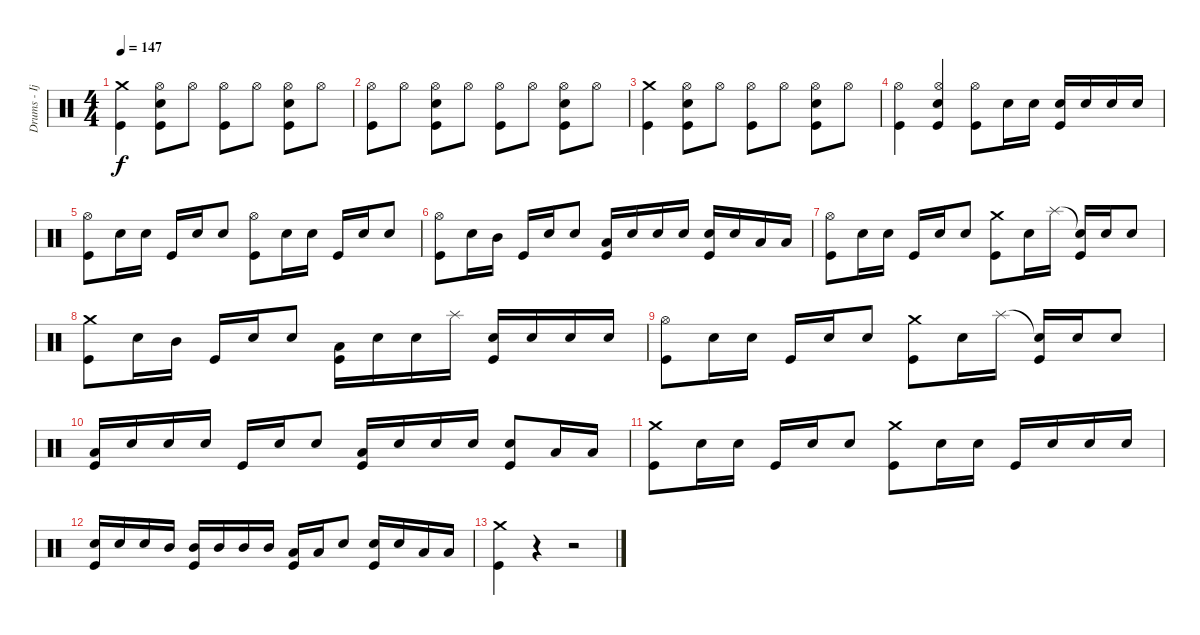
\track ("Drums - Ijichi" "Drums - Ij") {instrument percussion}
\staff {score}
\articulation defaults
\ts (4 4)
\tempo 147
\clef neutral
\ks c
("Crash medium (hit)" "Kick (hit)").4{dy f} ("Hi-Hat (open)" "Electric Snare (hit)" "Kick (hit)").8 "Hi-Hat (open)".8 ("Hi-Hat (open)" "Kick (hit)").8 "Hi-Hat (open)".8 ("Hi-Hat (open)" "Electric Snare (hit)" "Kick (hit)").8 "Hi-Hat (open)".8 |
("Hi-Hat (open)" "Kick (hit)").8 "Hi-Hat (open)".8 ("Hi-Hat (open)" "Electric Snare (hit)" "Kick (hit)").8 "Hi-Hat (open)".8 ("Hi-Hat (open)" "Kick (hit)").8 "Hi-Hat (open)".8 ("Hi-Hat (open)" "Electric Snare (hit)" "Kick (hit)").8 "Hi-Hat (open)".8 |
("Crash medium (hit)" "Kick (hit)").4 ("Hi-Hat (open)" "Electric Snare (hit)" "Kick (hit)").8 "Hi-Hat (open)".8 ("Hi-Hat (open)" "Kick (hit)").8 "Hi-Hat (open)".8 ("Hi-Hat (open)" "Electric Snare (hit)" "Kick (hit)").8 "Hi-Hat (open)".8 |
("Hi-Hat (open)" "Kick (hit)").4 ("Hi-Hat (open)" "Electric Snare (hit)" "Kick (hit)").4 ("Hi-Hat (open)" "Kick (hit)").8 "Electric Snare (hit)".16 "Electric Snare (hit)".16 ("Electric Snare (hit)" "Kick (hit)").16 "Electric Snare (hit)".16 "Electric Snare (hit)".16 "Electric Snare (hit)".16 |
("Hi-Hat (open)" "Kick (hit)").8 "Electric Snare (hit)".16 "Electric Snare (hit)".16 "Kick (hit)".16 "Electric Snare (hit)".16 "Electric Snare (hit)".8 ("Hi-Hat (open)" "Kick (hit)").8 "Electric Snare (hit)".16 "Electric Snare (hit)".16 "Kick (hit)".16 "Electric Snare (hit)".16 "Electric Snare (hit)".8 |
("Hi-Hat (open)" "Kick (hit)").8 "Electric Snare (hit)".16 "Mid Tom (hit)".16 "Kick (hit)".16 "Electric Snare (hit)".16 "Electric Snare (hit)".8 ("Low Tom (hit)" "Kick (hit)").16 "Electric Snare (hit)".16 "Electric Snare (hit)".16 "Electric Snare (hit)".16 ("Electric Snare (hit)" "Kick (hit)").16 "Electric Snare (hit)".16 "Low Tom (hit)".16 "Low Tom (hit)".16 |
("Hi-Hat (open)" "Kick (hit)").8 "Electric Snare (hit)".16 "Electric Snare (hit)".16 "Kick (hit)".16 "Electric Snare (hit)".16 "Electric Snare (hit)".8 ("Crash medium (hit)" "Kick (hit)").8 "Electric Snare (hit)".16 "Splash (hit)".16 ("Snare (hit)"{t} "Kick (hit)").16 "Electric Snare (hit)".16 "Electric Snare (hit)".8 |
("Crash medium (hit)" "Kick (hit)").8 "Electric Snare (hit)".16 "Mid Tom (hit)".16 "Kick (hit)".16 "Electric Snare (hit)".16 "Electric Snare (hit)".8 ("Low Tom (hit)" "Kick (hit)").16 "Electric Snare (hit)".16 "Electric Snare (hit)".16 "Splash (hit)".16 ("Electric Snare (hit)" "Kick (hit)").16 "Electric Snare (hit)".16 "Electric Snare (hit)".16 "Electric Snare (hit)".16 |
("Hi-Hat (open)" "Kick (hit)").8 "Electric Snare (hit)".16 "Electric Snare (hit)".16 "Kick (hit)".16 "Electric Snare (hit)".16 "Electric Snare (hit)".8 ("Crash medium (hit)" "Kick (hit)").8 "Electric Snare (hit)".16 "Splash (hit)".16 ("Snare (hit)"{t} "Kick (hit)").16 "Electric Snare (hit)".16 "Electric Snare (hit)".8 |
("Low Tom (hit)" "Kick (hit)").16 "Electric Snare (hit)".16 "Electric Snare (hit)".16 "Electric Snare (hit)".16 "Kick (hit)".16 "Electric Snare (hit)".16 "Electric Snare (hit)".8 ("Low Tom (hit)" "Kick (hit)").16 "Electric Snare (hit)".16 "Electric Snare (hit)".16 "Electric Snare (hit)".16 ("Electric Snare (hit)" "Kick (hit)").8 "Low Tom (hit)".16 "Low Tom (hit)".16 |
("Crash medium (hit)" "Kick (hit)").8 "Electric Snare (hit)".16 "Electric Snare (hit)".16 "Kick (hit)".16 "Electric Snare (hit)".16 "Electric Snare (hit)".8 ("Crash medium (hit)" "Kick (hit)").8 "Electric Snare (hit)".16 "Electric Snare (hit)".16 "Kick (hit)".16 "Electric Snare (hit)".16 "Electric Snare (hit)".16 "Electric Snare (hit)".16 |
("Electric Snare (hit)" "Kick (hit)").16 "Electric Snare (hit)".16 "Electric Snare (hit)".16 "Mid Tom (hit)".16 ("Mid Tom (hit)" "Kick (hit)").16 "Mid Tom (hit)".16 "Mid Tom (hit)".16 "Mid Tom (hit)".16 ("Low Tom (hit)" "Kick (hit)").16 "Low Tom (hit)".16 "Electric Snare (hit)".8 ("Electric Snare (hit)" "Kick (hit)").16 "Electric Snare (hit)".16 "Low Tom (hit)".16 "Low Tom (hit)".16 |
("Crash medium (hit)" "Kick (hit)").4 r.4 r.2
